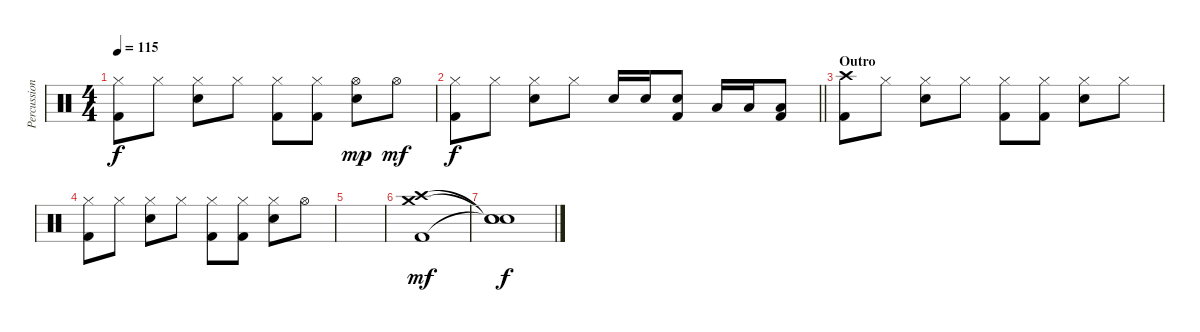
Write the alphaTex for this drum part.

\track ("Percussions" "Percussion") {instrument percussion}
\staff {score}
\articulation defaults
\ts (4 4)
\tempo 115
\clef neutral
\ks c
("Hi-Hat (closed)" "Kick (hit) 2").8{dy f} "Hi-Hat (closed)".8 ("Hi-Hat (closed)" "Electric Snare (hit)").8 "Hi-Hat (closed)".8 ("Hi-Hat (closed)" "Kick (hit) 2").8 ("Hi-Hat (closed)" "Kick (hit) 2").8 ("Hi-Hat (open)" "Electric Snare (hit)").8{dy mp} "Hi-Hat (open)".8{dy mf} |
\barLineRight lightlight
("Hi-Hat (closed)" "Kick (hit) 2").8{dy f} "Hi-Hat (closed)".8 ("Hi-Hat (closed)" "Electric Snare (hit)").8 "Hi-Hat (closed)".8 "Electric Snare (hit)".16 "Electric Snare (hit)".16 ("Kick (hit) 2" "Electric Snare (hit)").8 "Low Floor Tom (hit)".16 "Low Floor Tom (hit)".16 ("Kick (hit) 2" "Low Floor Tom (hit)").8 |
\section ("" "Outro")
("Crash high (hit)" "Kick (hit) 2").8 "Hi-Hat (closed)".8 ("Hi-Hat (closed)" "Electric Snare (hit)").8 "Hi-Hat (closed)".8 ("Hi-Hat (closed)" "Kick (hit) 2").8 ("Hi-Hat (closed)" "Kick (hit) 2").8 ("Hi-Hat (closed)" "Electric Snare (hit)").8 "Hi-Hat (closed)".8 |
("Hi-Hat (closed)" "Kick (hit) 2").8 "Hi-Hat (closed)".8 ("Hi-Hat (closed)" "Electric Snare (hit)").8 "Hi-Hat (closed)".8 ("Hi-Hat (closed)" "Kick (hit) 2").8 ("Hi-Hat (closed)" "Kick (hit) 2").8 ("Hi-Hat (closed)" "Electric Snare (hit)").8 "Hi-Hat (open)".8 |
|
("Crash high (hit)" "Crash medium (hit)" "Kick (hit) 2").1{dy mf} |
("Snare (hit)"{t} "Snare (hit)"{t} "Snare (hit)"{t}).1{dy f}
